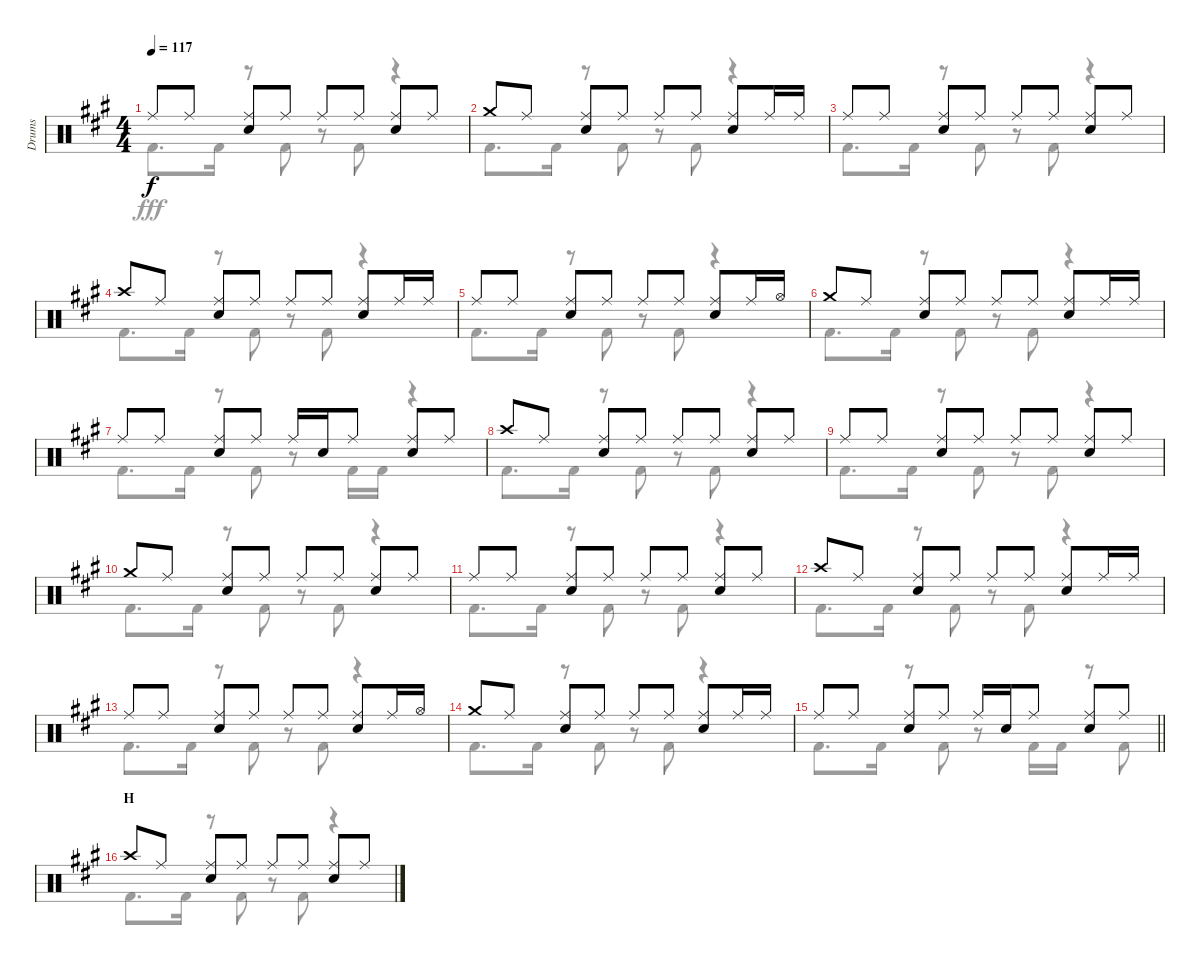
\track ("Drums" "Drums") {instrument percussion}
\staff {score}
\articulation defaults
\voice
\ts (4 4)
\tempo 117
\clef neutral
\ks a "Ride (middle)".8{dy f} "Ride (middle)".8
("Ride (middle)" "Snare (hit) 2").8 "Ride (middle)".8 "Ride (middle)".8 "Ride (middle)".8 ("Ride (middle)" "Snare (hit) 2").8 "Ride (middle)".8 |
"Crash medium (hit)".8 "Ride (middle)".8 ("Ride (middle)" "Snare (hit) 2").8 "Ride (middle)".8 "Ride (middle)".8 "Ride (middle)".8 ("Ride (middle)" "Snare (hit) 2").8 "Ride (middle)".16 "Ride (middle)".16 |
"Ride (middle)".8 "Ride (middle)".8 ("Ride (middle)" "Snare (hit) 2").8 "Ride (middle)".8 "Ride (middle)".8 "Ride (middle)".8 ("Ride (middle)" "Snare (hit) 2").8 "Ride (middle)".8 |
"Crash high (hit)".8 "Ride (middle)".8 ("Ride (middle)" "Snare (hit) 2").8 "Ride (middle)".8 "Ride (middle)".8 "Ride (middle)".8 ("Ride (middle)" "Snare (hit) 2").8 "Ride (middle)".16 "Ride (middle)".16 |
"Ride (middle)".8 "Ride (middle)".8 ("Ride (middle)" "Snare (hit) 2").8 "Ride (middle)".8 "Ride (middle)".8 "Ride (middle)".8 ("Ride (middle)" "Snare (hit) 2").8 "Ride (middle)".16 "Hi-Hat (open)".16 |
"Crash medium (hit)".8 "Ride (middle)".8 ("Ride (middle)" "Snare (hit) 2").8 "Ride (middle)".8 "Ride (middle)".8 "Ride (middle)".8 ("Ride (middle)" "Snare (hit) 2").8 "Ride (middle)".16 "Ride (middle)".16 |
"Ride (middle)".8 "Ride (middle)".8 ("Ride (middle)" "Snare (hit) 2").8 "Ride (middle)".8 "Ride (middle)".16 "Snare (hit) 2".16 "Ride (middle)".8 ("Ride (middle)" "Snare (hit) 2").8 "Ride (middle)".8 |
"Crash high (hit)".8 "Ride (middle)".8 ("Ride (middle)" "Snare (hit) 2").8 "Ride (middle)".8 "Ride (middle)".8 "Ride (middle)".8 ("Ride (middle)" "Snare (hit) 2").8 "Ride (middle)".8 |
"Ride (middle)".8 "Ride (middle)".8 ("Ride (middle)" "Snare (hit) 2").8 "Ride (middle)".8 "Ride (middle)".8 "Ride (middle)".8 ("Ride (middle)" "Snare (hit) 2").8 "Ride (middle)".8 |
"Crash medium (hit)".8 "Ride (middle)".8 ("Ride (middle)" "Snare (hit) 2").8 "Ride (middle)".8 "Ride (middle)".8 "Ride (middle)".8 ("Ride (middle)" "Snare (hit) 2").8 "Ride (middle)".8 |
"Ride (middle)".8 "Ride (middle)".8 ("Ride (middle)" "Snare (hit) 2").8 "Ride (middle)".8 "Ride (middle)".8 "Ride (middle)".8 ("Ride (middle)" "Snare (hit) 2").8 "Ride (middle)".8 |
"Crash high (hit)".8 "Ride (middle)".8 ("Ride (middle)" "Snare (hit) 2").8 "Ride (middle)".8 "Ride (middle)".8 "Ride (middle)".8 ("Ride (middle)" "Snare (hit) 2").8 "Ride (middle)".16 "Ride (middle)".16 |
"Ride (middle)".8 "Ride (middle)".8 ("Ride (middle)" "Snare (hit) 2").8 "Ride (middle)".8 "Ride (middle)".8 "Ride (middle)".8 ("Ride (middle)" "Snare (hit) 2").8 "Ride (middle)".16 "Hi-Hat (open)".16 |
"Crash medium (hit)".8 "Ride (middle)".8 ("Ride (middle)" "Snare (hit) 2").8 "Ride (middle)".8 "Ride (middle)".8 "Ride (middle)".8 ("Ride (middle)" "Snare (hit) 2").8 "Ride (middle)".16 "Ride (middle)".16 |
\barLineRight lightlight "Ride (middle)".8 "Ride (middle)".8
("Ride (middle)" "Snare (hit) 2").8 "Ride (middle)".8 "Ride (middle)".16 "Snare (hit) 2".16 "Ride (middle)".8 ("Ride (middle)" "Snare (hit) 2").8 "Ride (middle)".8 |
\section ("" "H")
"Crash high (hit)".8 "Ride (middle)".8 ("Ride (middle)" "Snare (hit) 2").8 "Ride (middle)".8 "Ride (middle)".8 "Ride (middle)".8 ("Ride (middle)" "Snare (hit) 2").8 "Ride (middle)".8
\voice
\clef neutral
\ottava regular
\simile none
\ks a "Kick (hit) 2".8{d dy fff} "Kick (hit) 2".16
r.8 "Kick (hit) 2".8 r.8 "Kick (hit) 2".8 r.4 |
"Kick (hit) 2".8{d} "Kick (hit) 2".16 r.8 "Kick (hit) 2".8 r.8 "Kick (hit) 2".8 r.4 |
"Kick (hit) 2".8{d} "Kick (hit) 2".16 r.8 "Kick (hit) 2".8 r.8 "Kick (hit) 2".8 r.4 |
"Kick (hit) 2".8{d} "Kick (hit) 2".16 r.8 "Kick (hit) 2".8 r.8 "Kick (hit) 2".8 r.4 |
"Kick (hit) 2".8{d} "Kick (hit) 2".16 r.8 "Kick (hit) 2".8 r.8 "Kick (hit) 2".8 r.4 |
"Kick (hit) 2".8{d} "Kick (hit) 2".16 r.8 "Kick (hit) 2".8 r.8 "Kick (hit) 2".8 r.4 |
"Kick (hit) 2".8{d} "Kick (hit) 2".16 r.8 "Kick (hit) 2".8 r.8 "Kick (hit) 2".16 "Kick (hit) 2".16 r.4 |
"Kick (hit) 2".8{d} "Kick (hit) 2".16 r.8 "Kick (hit) 2".8 r.8 "Kick (hit) 2".8 r.4 |
"Kick (hit) 2".8{d} "Kick (hit) 2".16 r.8 "Kick (hit) 2".8 r.8 "Kick (hit) 2".8 r.4 |
"Kick (hit) 2".8{d} "Kick (hit) 2".16 r.8 "Kick (hit) 2".8 r.8 "Kick (hit) 2".8 r.4 |
"Kick (hit) 2".8{d} "Kick (hit) 2".16 r.8 "Kick (hit) 2".8 r.8 "Kick (hit) 2".8 r.4 |
"Kick (hit) 2".8{d} "Kick (hit) 2".16 r.8 "Kick (hit) 2".8 r.8 "Kick (hit) 2".8 r.4 |
"Kick (hit) 2".8{d} "Kick (hit) 2".16 r.8 "Kick (hit) 2".8 r.8 "Kick (hit) 2".8 r.4 |
"Kick (hit) 2".8{d} "Kick (hit) 2".16 r.8 "Kick (hit) 2".8 r.8 "Kick (hit) 2".8 r.4 |
\barLineRight lightlight "Kick (hit) 2".8{d} "Kick (hit) 2".16
r.8 "Kick (hit) 2".8 r.8 "Kick (hit) 2".16 "Kick (hit) 2".16 r.8 "Kick (hit) 2".8 |
"Kick (hit) 2".8{d} "Kick (hit) 2".16 r.8 "Kick (hit) 2".8 r.8 "Kick (hit) 2".8 r.4
